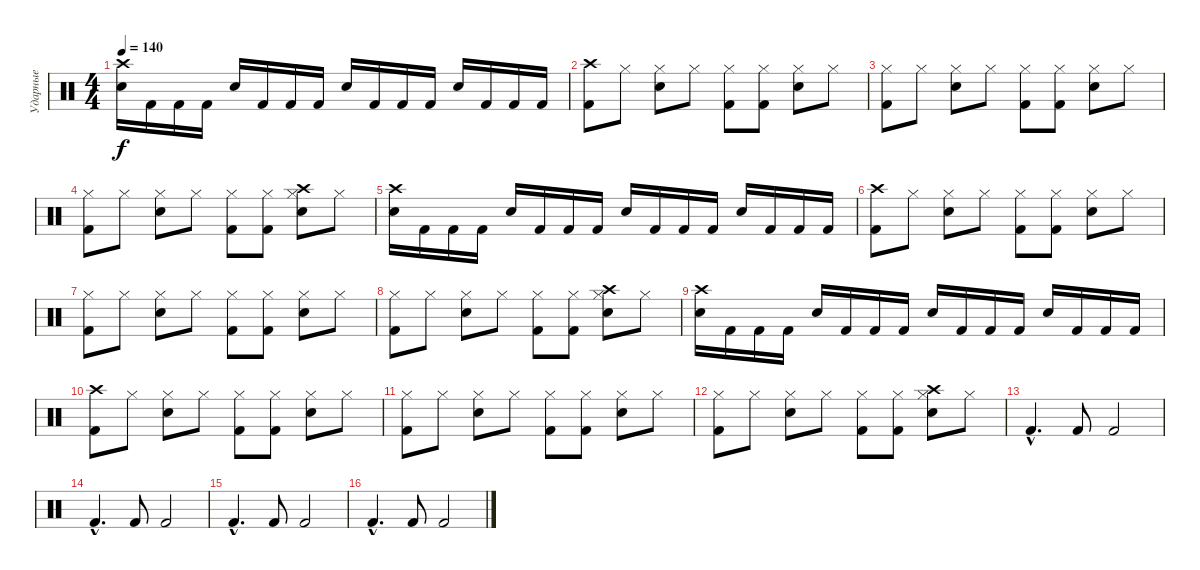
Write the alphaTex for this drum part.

\track ("Ударные" "Ударные") {instrument percussion}
\staff {score}
\articulation defaults
\ts (4 4)
\tempo 140
\clef neutral
\ks c
("Crash high (hit)" "Snare (hit) 2").16{dy f} "Kick (hit) 2".16 "Kick (hit) 2".16 "Kick (hit) 2".16 "Snare (hit) 2".16 "Kick (hit) 2".16 "Kick (hit) 2".16 "Kick (hit) 2".16 "Snare (hit) 2".16 "Kick (hit) 2".16 "Kick (hit) 2".16 "Kick (hit) 2".16 "Snare (hit) 2".16 "Kick (hit) 2".16 "Kick (hit) 2".16 "Kick (hit) 2".16 |
("Crash high (hit)" "Kick (hit) 2").8 "Hi-Hat (closed)".8 ("Hi-Hat (closed)" "Snare (hit) 2").8 "Hi-Hat (closed)".8 ("Kick (hit) 2" "Hi-Hat (closed)").8 ("Kick (hit) 2" "Hi-Hat (closed)").8 ("Snare (hit) 2" "Hi-Hat (closed)").8 "Hi-Hat (closed)".8 |
("Hi-Hat (closed)" "Kick (hit) 2").8 "Hi-Hat (closed)".8 ("Hi-Hat (closed)" "Snare (hit) 2").8 "Hi-Hat (closed)".8 ("Kick (hit) 2" "Hi-Hat (closed)").8 ("Kick (hit) 2" "Hi-Hat (closed)").8 ("Snare (hit) 2" "Hi-Hat (closed)").8 "Hi-Hat (closed)".8 |
("Hi-Hat (closed)" "Kick (hit) 2").8 "Hi-Hat (closed)".8 ("Hi-Hat (closed)" "Snare (hit) 2").8 "Hi-Hat (closed)".8 ("Kick (hit) 2" "Hi-Hat (closed)").8 ("Kick (hit) 2" "Hi-Hat (closed)").8 ("Crash high (hit)" "Snare (hit) 2" "Hi-Hat (closed)").8 "Hi-Hat (closed)".8 |
("Crash high (hit)" "Snare (hit) 2").16 "Kick (hit) 2".16 "Kick (hit) 2".16 "Kick (hit) 2".16 "Snare (hit) 2".16 "Kick (hit) 2".16 "Kick (hit) 2".16 "Kick (hit) 2".16 "Snare (hit) 2".16 "Kick (hit) 2".16 "Kick (hit) 2".16 "Kick (hit) 2".16 "Snare (hit) 2".16 "Kick (hit) 2".16 "Kick (hit) 2".16 "Kick (hit) 2".16 |
("Crash high (hit)" "Kick (hit) 2").8 "Hi-Hat (closed)".8 ("Hi-Hat (closed)" "Snare (hit) 2").8 "Hi-Hat (closed)".8 ("Kick (hit) 2" "Hi-Hat (closed)").8 ("Kick (hit) 2" "Hi-Hat (closed)").8 ("Snare (hit) 2" "Hi-Hat (closed)").8 "Hi-Hat (closed)".8 |
("Hi-Hat (closed)" "Kick (hit) 2").8 "Hi-Hat (closed)".8 ("Hi-Hat (closed)" "Snare (hit) 2").8 "Hi-Hat (closed)".8 ("Kick (hit) 2" "Hi-Hat (closed)").8 ("Kick (hit) 2" "Hi-Hat (closed)").8 ("Snare (hit) 2" "Hi-Hat (closed)").8 "Hi-Hat (closed)".8 |
("Hi-Hat (closed)" "Kick (hit) 2").8 "Hi-Hat (closed)".8 ("Hi-Hat (closed)" "Snare (hit) 2").8 "Hi-Hat (closed)".8 ("Kick (hit) 2" "Hi-Hat (closed)").8 ("Kick (hit) 2" "Hi-Hat (closed)").8 ("Crash high (hit)" "Snare (hit) 2" "Hi-Hat (closed)").8 "Hi-Hat (closed)".8 |
("Crash high (hit)" "Snare (hit) 2").16 "Kick (hit) 2".16 "Kick (hit) 2".16 "Kick (hit) 2".16 "Snare (hit) 2".16 "Kick (hit) 2".16 "Kick (hit) 2".16 "Kick (hit) 2".16 "Snare (hit) 2".16 "Kick (hit) 2".16 "Kick (hit) 2".16 "Kick (hit) 2".16 "Snare (hit) 2".16 "Kick (hit) 2".16 "Kick (hit) 2".16 "Kick (hit) 2".16 |
("Crash high (hit)" "Kick (hit) 2").8 "Hi-Hat (closed)".8 ("Hi-Hat (closed)" "Snare (hit) 2").8 "Hi-Hat (closed)".8 ("Kick (hit) 2" "Hi-Hat (closed)").8 ("Kick (hit) 2" "Hi-Hat (closed)").8 ("Snare (hit) 2" "Hi-Hat (closed)").8 "Hi-Hat (closed)".8 |
("Hi-Hat (closed)" "Kick (hit) 2").8 "Hi-Hat (closed)".8 ("Hi-Hat (closed)" "Snare (hit) 2").8 "Hi-Hat (closed)".8 ("Kick (hit) 2" "Hi-Hat (closed)").8 ("Kick (hit) 2" "Hi-Hat (closed)").8 ("Snare (hit) 2" "Hi-Hat (closed)").8 "Hi-Hat (closed)".8 |
("Hi-Hat (closed)" "Kick (hit) 2").8 "Hi-Hat (closed)".8 ("Hi-Hat (closed)" "Snare (hit) 2").8 "Hi-Hat (closed)".8 ("Kick (hit) 2" "Hi-Hat (closed)").8 ("Kick (hit) 2" "Hi-Hat (closed)").8 ("Crash high (hit)" "Snare (hit) 2" "Hi-Hat (closed)").8 "Hi-Hat (closed)".8 |
"Kick (hit) 2"{hac}.4{d} "Kick (hit) 2".8 "Kick (hit) 2".2 |
"Kick (hit) 2"{hac}.4{d} "Kick (hit) 2".8 "Kick (hit) 2".2 |
"Kick (hit) 2"{hac}.4{d} "Kick (hit) 2".8 "Kick (hit) 2".2 |
"Kick (hit) 2"{hac}.4{d} "Kick (hit) 2".8 "Kick (hit) 2".2
